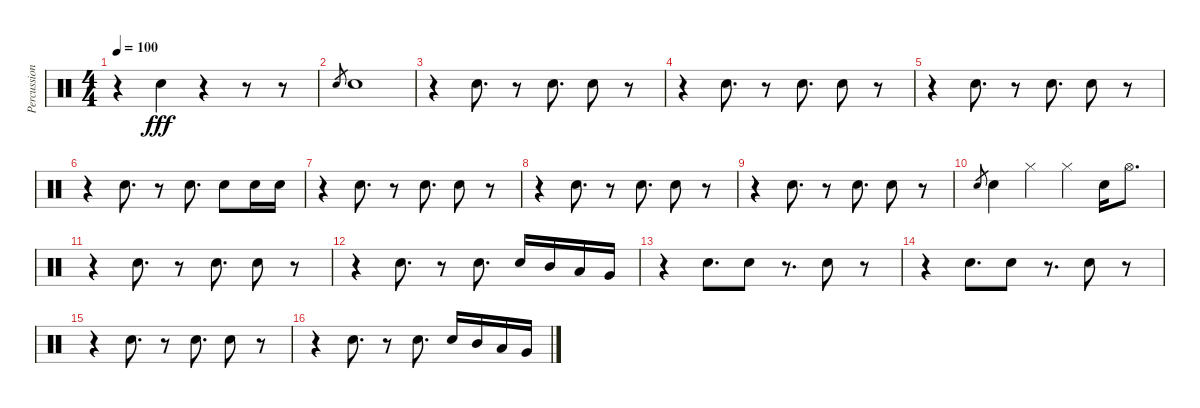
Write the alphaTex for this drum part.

\track ("Percussion" "Percussion") {instrument percussion}
\staff {score}
\articulation defaults
\ts (4 4)
\tempo 100
\clef neutral
\ks c
r.4{dy fff} "Snare (hit) 2".4 r.4 r.8 r.8 |
"Snare (hit) 2".8{gr} "Snare (hit) 2".1 |
r.4 "Snare (hit) 2".8{d} r.8 "Snare (hit) 2".8{d} "Snare (hit) 2".8 r.8 |
r.4 "Snare (hit) 2".8{d} r.8 "Snare (hit) 2".8{d} "Snare (hit) 2".8 r.8 |
r.4 "Snare (hit) 2".8{d} r.8 "Snare (hit) 2".8{d} "Snare (hit) 2".8 r.8 |
r.4 "Snare (hit) 2".8{d} r.8 "Snare (hit) 2".8{d} "Snare (hit) 2".8 "Snare (hit) 2".16 "Snare (hit) 2".16 |
r.4 "Snare (hit) 2".8{d} r.8 "Snare (hit) 2".8{d} "Snare (hit) 2".8 r.8 |
r.4 "Snare (hit) 2".8{d} r.8 "Snare (hit) 2".8{d} "Snare (hit) 2".8 r.8 |
r.4 "Snare (hit) 2".8{d} r.8 "Snare (hit) 2".8{d} "Snare (hit) 2".8 r.8 |
"Snare (hit) 2".8{gr} "Snare (hit) 2".4 "Hi-Hat (closed)".4 "Hi-Hat (closed)".4 "Snare (hit) 2".16 "Hi-Hat (open)".8{d} |
r.4 "Snare (hit) 2".8{d} r.8 "Snare (hit) 2".8{d} "Snare (hit) 2".8 r.8 |
r.4 "Snare (hit) 2".8{d} r.8 "Snare (hit) 2".8{d} "Snare (hit) 2".16 "Mid Tom (hit)".16 "Low Tom (hit)".16 "Very Low Tom (hit)".16 |
r.4 "Snare (hit) 2".8{d} "Snare (hit) 2".8 r.8{d} "Snare (hit) 2".8 r.8 |
r.4 "Snare (hit) 2".8{d} "Snare (hit) 2".8 r.8{d} "Snare (hit) 2".8 r.8 |
r.4 "Snare (hit) 2".8{d} r.8 "Snare (hit) 2".8{d} "Snare (hit) 2".8 r.8 |
r.4 "Snare (hit) 2".8{d} r.8 "Snare (hit) 2".8{d} "Snare (hit) 2".16 "Mid Tom (hit)".16 "Low Tom (hit)".16 "Very Low Tom (hit)".16
